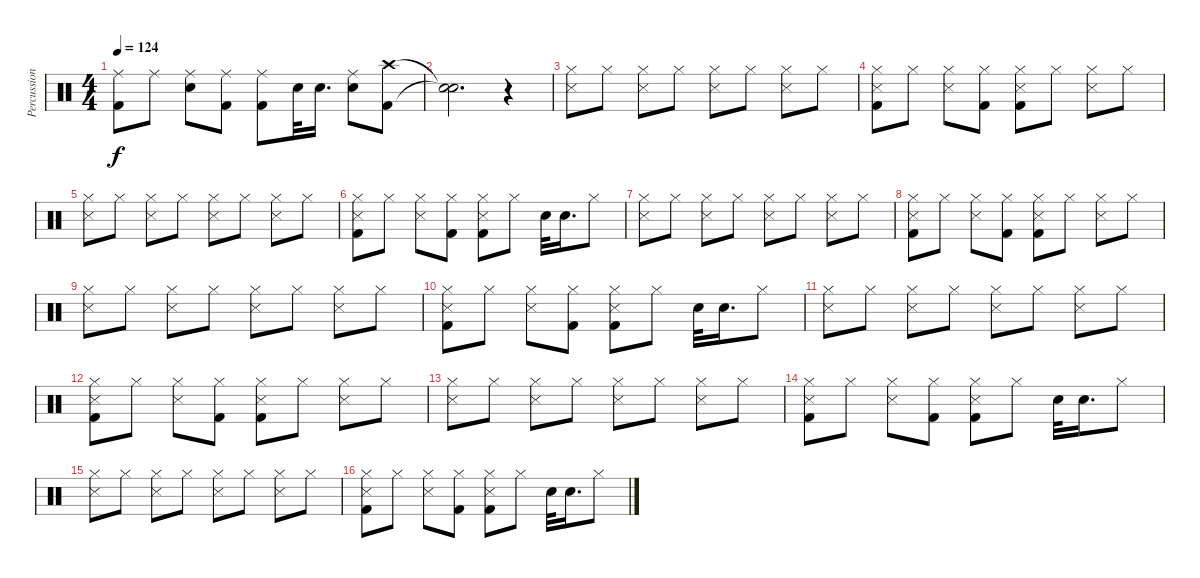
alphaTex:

\track ("Percussion" "Percussion") {instrument percussion}
\staff {score}
\articulation defaults
\ts (4 4)
\tempo 124
\clef neutral
\ks c
("Ride (middle)" "Kick (hit) 2").8{dy f} "Ride (middle)".8 ("Ride (middle)" "Snare (hit) 2").8 ("Ride (middle)" "Kick (hit) 2").8 ("Ride (middle)" "Kick (hit) 2").8 "Snare (hit) 2".32 "Snare (hit) 2".16{d} ("Ride (middle)" "Snare (hit) 2").8 ("Crash high (hit)" "Kick (hit) 2").8 |
("Snare (hit)"{t} "Snare (hit)"{t}).2{d} r.4 |
("Hi-Hat (closed)" "Snare (side stick) 3").8 "Hi-Hat (closed)".8 ("Hi-Hat (closed)" "Snare (side stick) 3").8 "Hi-Hat (closed)".8 ("Hi-Hat (closed)" "Snare (side stick) 3").8 "Hi-Hat (closed)".8 ("Hi-Hat (closed)" "Snare (side stick) 3").8 "Hi-Hat (closed)".8 |
("Hi-Hat (closed)" "Snare (side stick) 3" "Kick (hit) 2").8 "Hi-Hat (closed)".8 ("Hi-Hat (closed)" "Snare (side stick) 3").8 ("Hi-Hat (closed)" "Kick (hit) 2").8 ("Hi-Hat (closed)" "Snare (side stick) 3" "Kick (hit) 2").8 "Hi-Hat (closed)".8 ("Hi-Hat (closed)" "Snare (side stick) 3").8 "Hi-Hat (closed)".8 |
("Hi-Hat (closed)" "Snare (side stick) 3").8 "Hi-Hat (closed)".8 ("Hi-Hat (closed)" "Snare (side stick) 3").8 "Hi-Hat (closed)".8 ("Hi-Hat (closed)" "Snare (side stick) 3").8 "Hi-Hat (closed)".8 ("Hi-Hat (closed)" "Snare (side stick) 3").8 "Hi-Hat (closed)".8 |
("Hi-Hat (closed)" "Snare (side stick) 3" "Kick (hit) 2").8 "Hi-Hat (closed)".8 ("Hi-Hat (closed)" "Snare (side stick) 3").8 ("Hi-Hat (closed)" "Kick (hit) 2").8 ("Hi-Hat (closed)" "Snare (side stick) 3" "Kick (hit) 2").8 "Hi-Hat (closed)".8 "Snare (hit) 2".32 "Snare (hit) 2".16{d} "Hi-Hat (closed)".8 |
("Hi-Hat (closed)" "Snare (side stick) 3").8 "Hi-Hat (closed)".8 ("Hi-Hat (closed)" "Snare (side stick) 3").8 "Hi-Hat (closed)".8 ("Hi-Hat (closed)" "Snare (side stick) 3").8 "Hi-Hat (closed)".8 ("Hi-Hat (closed)" "Snare (side stick) 3").8 "Hi-Hat (closed)".8 |
("Hi-Hat (closed)" "Snare (side stick) 3" "Kick (hit) 2").8 "Hi-Hat (closed)".8 ("Hi-Hat (closed)" "Snare (side stick) 3").8 ("Hi-Hat (closed)" "Kick (hit) 2").8 ("Hi-Hat (closed)" "Snare (side stick) 3" "Kick (hit) 2").8 "Hi-Hat (closed)".8 ("Hi-Hat (closed)" "Snare (side stick) 3").8 "Hi-Hat (closed)".8 |
("Hi-Hat (closed)" "Snare (side stick) 3").8 "Hi-Hat (closed)".8 ("Hi-Hat (closed)" "Snare (side stick) 3").8 "Hi-Hat (closed)".8 ("Hi-Hat (closed)" "Snare (side stick) 3").8 "Hi-Hat (closed)".8 ("Hi-Hat (closed)" "Snare (side stick) 3").8 "Hi-Hat (closed)".8 |
("Hi-Hat (closed)" "Snare (side stick) 3" "Kick (hit) 2").8 "Hi-Hat (closed)".8 ("Hi-Hat (closed)" "Snare (side stick) 3").8 ("Hi-Hat (closed)" "Kick (hit) 2").8 ("Hi-Hat (closed)" "Snare (side stick) 3" "Kick (hit) 2").8 "Hi-Hat (closed)".8 "Snare (hit) 2".32 "Snare (hit) 2".16{d} "Hi-Hat (closed)".8 |
("Hi-Hat (closed)" "Snare (side stick) 3").8 "Hi-Hat (closed)".8 ("Hi-Hat (closed)" "Snare (side stick) 3").8 "Hi-Hat (closed)".8 ("Hi-Hat (closed)" "Snare (side stick) 3").8 "Hi-Hat (closed)".8 ("Hi-Hat (closed)" "Snare (side stick) 3").8 "Hi-Hat (closed)".8 |
("Hi-Hat (closed)" "Snare (side stick) 3" "Kick (hit) 2").8 "Hi-Hat (closed)".8 ("Hi-Hat (closed)" "Snare (side stick) 3").8 ("Hi-Hat (closed)" "Kick (hit) 2").8 ("Hi-Hat (closed)" "Snare (side stick) 3" "Kick (hit) 2").8 "Hi-Hat (closed)".8 ("Hi-Hat (closed)" "Snare (side stick) 3").8 "Hi-Hat (closed)".8 |
("Hi-Hat (closed)" "Snare (side stick) 3").8 "Hi-Hat (closed)".8 ("Hi-Hat (closed)" "Snare (side stick) 3").8 "Hi-Hat (closed)".8 ("Hi-Hat (closed)" "Snare (side stick) 3").8 "Hi-Hat (closed)".8 ("Hi-Hat (closed)" "Snare (side stick) 3").8 "Hi-Hat (closed)".8 |
("Hi-Hat (closed)" "Snare (side stick) 3" "Kick (hit) 2").8 "Hi-Hat (closed)".8 ("Hi-Hat (closed)" "Snare (side stick) 3").8 ("Hi-Hat (closed)" "Kick (hit) 2").8 ("Hi-Hat (closed)" "Snare (side stick) 3" "Kick (hit) 2").8 "Hi-Hat (closed)".8 "Snare (hit) 2".32 "Snare (hit) 2".16{d} "Hi-Hat (closed)".8 |
("Hi-Hat (closed)" "Snare (side stick) 3").8 "Hi-Hat (closed)".8 ("Hi-Hat (closed)" "Snare (side stick) 3").8 "Hi-Hat (closed)".8 ("Hi-Hat (closed)" "Snare (side stick) 3").8 "Hi-Hat (closed)".8 ("Hi-Hat (closed)" "Snare (side stick) 3").8 "Hi-Hat (closed)".8 |
("Hi-Hat (closed)" "Snare (side stick) 3" "Kick (hit) 2").8 "Hi-Hat (closed)".8 ("Hi-Hat (closed)" "Snare (side stick) 3").8 ("Hi-Hat (closed)" "Kick (hit) 2").8 ("Hi-Hat (closed)" "Snare (side stick) 3" "Kick (hit) 2").8 "Hi-Hat (closed)".8 "Snare (hit) 2".32 "Snare (hit) 2".16{d} "Hi-Hat (closed)".8
